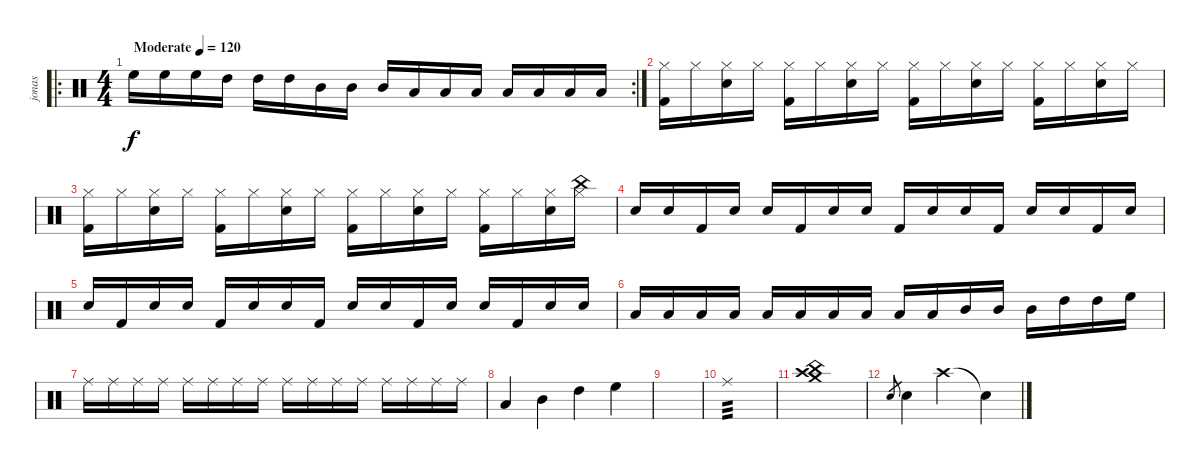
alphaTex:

\track ("jonas" "jonas") {instrument percussion}
\staff {score}
\articulation defaults
\ro
\rc 2
\ts (4 4)
\tempo (120 "Moderate")
\clef neutral
\ks c "High Floor Tom (hit)".16{dy f} "High Floor Tom (hit)".16 "High Floor Tom (hit)".16 "High Tom (hit)".16 "High Tom (hit)".16 "High Tom (hit)".16 "Mid Tom (hit)".16 "Mid Tom (hit)".16 "Mid Tom (hit)".16 "Low Tom (hit)".16 "Low Tom (hit)".16 "Low Tom (hit)".16 "Low Tom (hit)".16 "Low Tom (hit)".16 "Low Tom (hit)".16 "Low Tom (hit)".16
|
("Hi-Hat (closed)" "Kick (hit) 2").16 "Hi-Hat (closed)".16 ("Hi-Hat (closed)" "Snare (hit) 2").16 "Hi-Hat (closed)".16 ("Hi-Hat (closed)" "Kick (hit) 2").16 "Hi-Hat (closed)".16 ("Hi-Hat (closed)" "Snare (hit) 2").16 "Hi-Hat (closed)".16 ("Hi-Hat (closed)" "Kick (hit) 2").16 "Hi-Hat (closed)".16 ("Hi-Hat (closed)" "Snare (hit) 2").16 "Hi-Hat (closed)".16 ("Hi-Hat (closed)" "Kick (hit) 2").16 "Hi-Hat (closed)".16 ("Hi-Hat (closed)" "Snare (hit) 2").16 "Hi-Hat (closed)".16 |
("Hi-Hat (closed)" "Kick (hit) 2").16 "Hi-Hat (closed)".16 ("Hi-Hat (closed)" "Snare (hit) 2").16 "Hi-Hat (closed)".16 ("Hi-Hat (closed)" "Kick (hit) 2").16 "Hi-Hat (closed)".16 ("Hi-Hat (closed)" "Snare (hit) 2").16 "Hi-Hat (closed)".16 ("Hi-Hat (closed)" "Kick (hit) 2").16 "Hi-Hat (closed)".16 ("Hi-Hat (closed)" "Snare (hit) 2").16 "Hi-Hat (closed)".16 ("Hi-Hat (closed)" "Kick (hit) 2").16 "Hi-Hat (closed)".16 ("Hi-Hat (closed)" "Snare (hit) 2").16 ("China (hit)" "Hi-Hat (closed)").16 |
"Snare (hit) 2".16 "Snare (hit) 2".16 "Kick (hit) 2".16 "Snare (hit) 2".16 "Snare (hit) 2".16 "Kick (hit) 2".16 "Snare (hit) 2".16 "Snare (hit) 2".16 "Kick (hit) 2".16 "Snare (hit) 2".16 "Snare (hit) 2".16 "Kick (hit) 2".16 "Snare (hit) 2".16 "Snare (hit) 2".16 "Kick (hit) 2".16 "Snare (hit) 2".16 |
"Snare (hit) 2".16 "Kick (hit) 2".16 "Snare (hit) 2".16 "Snare (hit) 2".16 "Kick (hit) 2".16 "Snare (hit) 2".16 "Snare (hit) 2".16 "Kick (hit) 2".16 "Snare (hit) 2".16 "Snare (hit) 2".16 "Kick (hit) 2".16 "Snare (hit) 2".16 "Snare (hit) 2".16 "Kick (hit) 2".16 "Snare (hit) 2".16 "Snare (hit) 2".16 |
"Low Floor Tom (hit)".16 "Low Floor Tom (hit)".16 "Low Floor Tom (hit)".16 "Low Floor Tom (hit)".16 "Low Floor Tom (hit)".16 "Low Tom (hit)".16 "Low Tom (hit)".16 "Low Tom (hit)".16 "Low Tom (hit)".16 "Low Tom (hit)".16 "Mid Tom (hit)".16 "Mid Tom (hit)".16 "Mid Tom (hit)".16 "High Tom (hit)".16 "High Tom (hit)".16 "High Floor Tom (hit)".16 |
"Ride (middle)".16 "Ride (middle)".16 "Ride (middle)".16 "Ride (middle)".16 "Ride (middle)".16 "Ride (middle)".16 "Ride (middle)".16 "Ride (middle)".16 "Ride (middle)".16 "Ride (middle)".16 "Ride (middle)".16 "Ride (middle)".16 "Ride (middle)".16 "Ride (middle)".16 "Ride (middle)".16 "Ride (middle)".16 |
"Low Tom (hit)".4 "Mid Tom (hit)".4 "High Tom (hit)".4 "High Floor Tom (hit)".4 |
|
"Ride (middle)".1{tp 3} |
("Crash medium (hit)" "Crash high (hit)" "China (hit)").1 |
"Snare (hit) 2".8{gr} "Snare (hit) 2".4 "Crash high (hit)".2 "Snare (hit)"{t}.4
